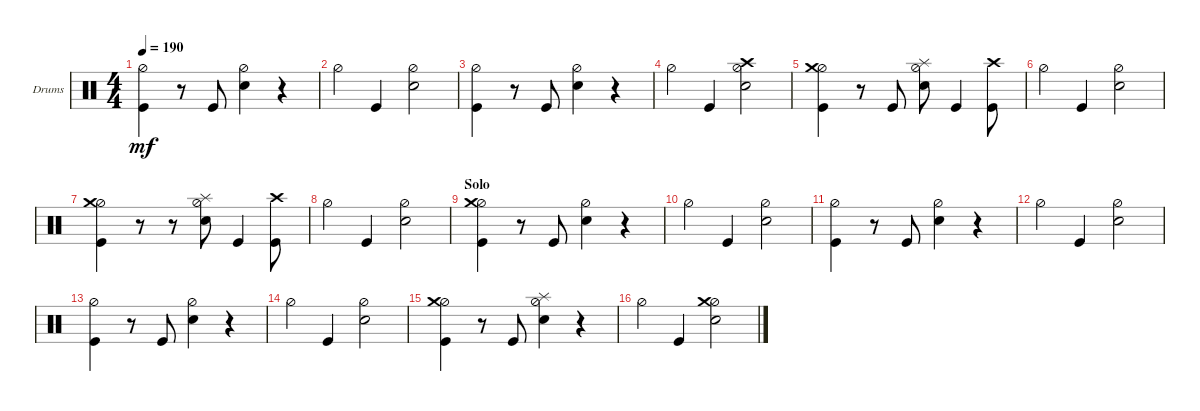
\defaultSystemsLayout 4
\bracketExtendMode groupsimilarinstruments
\firstSystemTrackNameOrientation horizontal
\otherSystemsTrackNameOrientation horizontal
\track ("Drumkit" "Drums") {instrument percussion}
\staff {score}
\articulation defaults
\ts (4 4)
\tempo 190
\clef neutral
\ks c
("Hi-Hat (half)" "Kick (hit)").4{dy mf} r.8 "Kick (hit)".8 ("Hi-Hat (half)" "Snare (hit) 2").4 r.4 |
"Hi-Hat (half)".4 "Kick (hit)".4 ("Snare (hit) 2" "Hi-Hat (half)").2 |
("Hi-Hat (half)" "Kick (hit)").4 r.8 "Kick (hit)".8 ("Hi-Hat (half)" "Snare (hit) 2").4 r.4 |
"Hi-Hat (half)".4 "Kick (hit)".4 ("Snare (hit) 2" "Hi-Hat (half)" "Crash high (hit)").2 |
("Hi-Hat (half)" "Kick (hit)" "Crash medium (hit)").4 r.8 "Kick (hit)".8 ("Hi-Hat (half)" "Snare (hit) 2" "Splash (hit)").8 "Kick (hit)".4 ("Kick (hit)" "Crash high (hit)").8 |
"Hi-Hat (half)".4 "Kick (hit)".4 ("Snare (hit) 2" "Hi-Hat (half)").2 |
("Hi-Hat (half)" "Kick (hit)" "Crash medium (hit)").4 r.8 r.8 ("Hi-Hat (half)" "Snare (hit) 2" "Splash (hit)").8 "Kick (hit)".4 ("Kick (hit)" "Crash high (hit)").8 |
"Hi-Hat (half)".4 "Kick (hit)".4 ("Snare (hit) 2" "Hi-Hat (half)").2 |
\section ("" "Solo")
("Hi-Hat (half)" "Kick (hit)" "Crash medium (hit)").4 r.8 "Kick (hit)".8 ("Hi-Hat (half)" "Snare (hit) 2").4 r.4 |
"Hi-Hat (half)".4 "Kick (hit)".4 ("Snare (hit) 2" "Hi-Hat (half)").2 |
("Hi-Hat (half)" "Kick (hit)").4 r.8 "Kick (hit)".8 ("Hi-Hat (half)" "Snare (hit) 2").4 r.4 |
"Hi-Hat (half)".4 "Kick (hit)".4 ("Snare (hit) 2" "Hi-Hat (half)").2 |
("Hi-Hat (half)" "Kick (hit)").4 r.8 "Kick (hit)".8 ("Hi-Hat (half)" "Snare (hit) 2").4 r.4 |
"Hi-Hat (half)".4 "Kick (hit)".4 ("Snare (hit) 2" "Hi-Hat (half)").2 |
("Hi-Hat (half)" "Kick (hit)" "Crash medium (hit)").4 r.8 "Kick (hit)".8 ("Hi-Hat (half)" "Snare (hit) 2" "Splash (hit)").4 r.4 |
"Hi-Hat (half)".4 "Kick (hit)".4 ("Snare (hit) 2" "Hi-Hat (half)" "Crash medium (hit)").2
